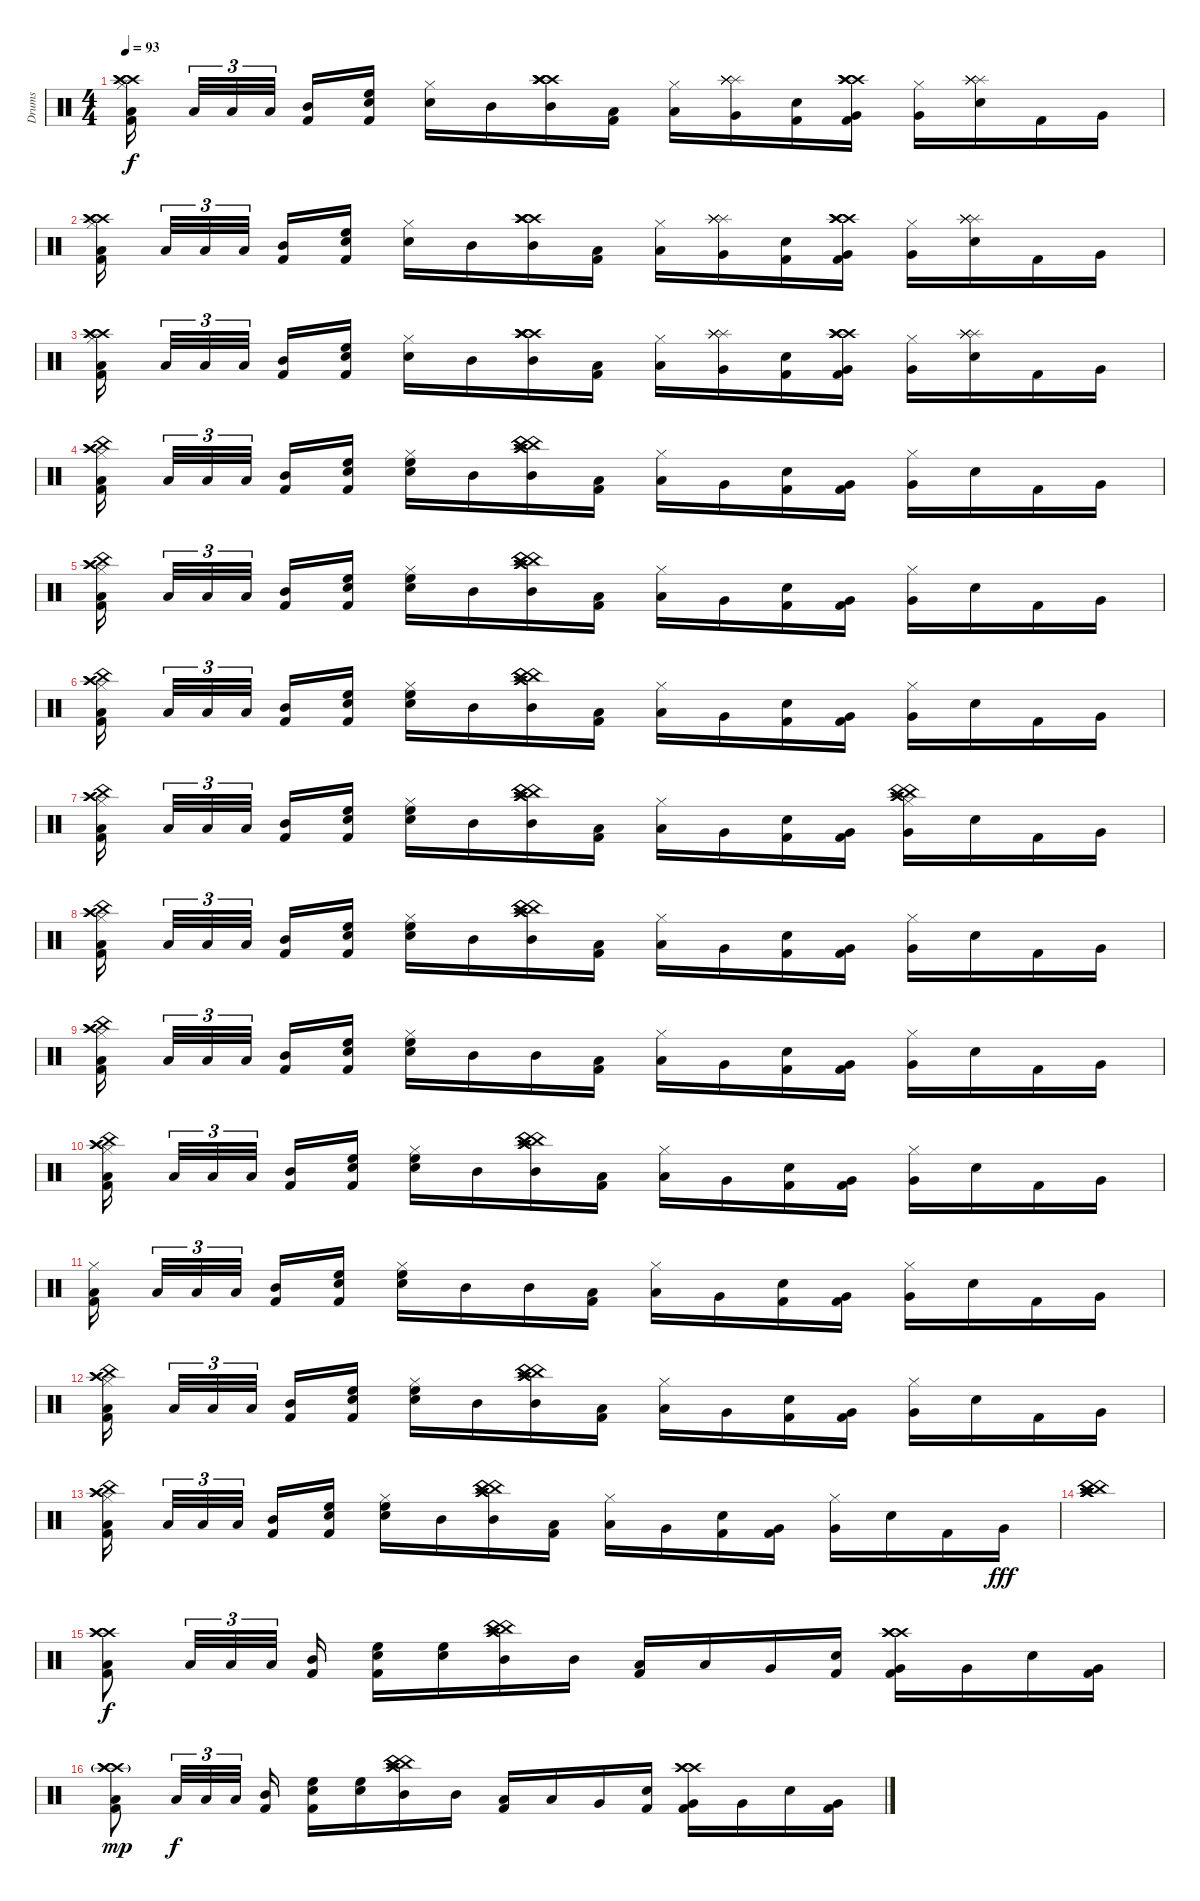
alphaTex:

\track ("Drums" "Drums") {instrument percussion}
\staff {score}
\articulation defaults
\ts (4 4)
\tempo 93
\clef neutral
\ks c
("Hi-Hat (closed)" "Crash high (hit)" "Low Floor Tom (hit)" "Crash high (hit)" "Crash high (hit)" "Kick (hit) 2").16{dy f} "Low Floor Tom (hit)".32{tu (3 2)} "Low Floor Tom (hit)".32{tu (3 2)} "Low Floor Tom (hit)".32{tu (3 2)} ("Mid Tom (hit)" "Kick (hit) 2").16 ("High Floor Tom (hit)" "Snare (hit) 2" "Kick (hit) 2").16 ("Hi-Hat (closed)" "Snare (hit) 2").16 "Mid Tom (hit)".16 ("Crash high (hit)" "Mid Tom (hit)" "Crash high (hit)" "Crash high (hit)" "Crash high (hit)" "Crash high (hit)").16 ("Low Tom (hit)" "Kick (hit) 2").16 ("Hi-Hat (closed)" "Low Floor Tom (hit)").16 ("Splash (hit)" "Splash (hit)" "Splash (hit)" "Splash (hit)" "Very Low Tom (hit)" "Splash (hit)").16 ("Snare (hit) 2" "Kick (hit) 2").16 ("Crash high (hit)" "Crash high (hit)" "Crash high (hit)" "Very Low Tom (hit)" "Crash high (hit)" "Kick (hit) 2").16 ("Hi-Hat (closed)" "Very Low Tom (hit)").16 ("Splash (hit)" "Splash (hit)" "Splash (hit)" "Splash (hit)" "Snare (hit) 2" "Splash (hit)").16 "Kick (hit) 2".16 "Very Low Tom (hit)".16 |
("Hi-Hat (closed)" "Crash high (hit)" "Low Floor Tom (hit)" "Crash high (hit)" "Crash high (hit)" "Kick (hit) 2").16 "Low Floor Tom (hit)".32{tu (3 2)} "Low Floor Tom (hit)".32{tu (3 2)} "Low Floor Tom (hit)".32{tu (3 2)} ("Mid Tom (hit)" "Kick (hit) 2").16 ("High Floor Tom (hit)" "Snare (hit) 2" "Kick (hit) 2").16 ("Hi-Hat (closed)" "Snare (hit) 2").16 "Mid Tom (hit)".16 ("Crash high (hit)" "Mid Tom (hit)" "Crash high (hit)" "Crash high (hit)" "Crash high (hit)" "Crash high (hit)").16 ("Low Tom (hit)" "Kick (hit) 2").16 ("Hi-Hat (closed)" "Low Floor Tom (hit)").16 ("Splash (hit)" "Splash (hit)" "Splash (hit)" "Splash (hit)" "Very Low Tom (hit)" "Splash (hit)").16 ("Snare (hit) 2" "Kick (hit) 2").16 ("Crash high (hit)" "Crash high (hit)" "Crash high (hit)" "Very Low Tom (hit)" "Crash high (hit)" "Kick (hit) 2").16 ("Hi-Hat (closed)" "Very Low Tom (hit)").16 ("Splash (hit)" "Splash (hit)" "Splash (hit)" "Splash (hit)" "Snare (hit) 2" "Splash (hit)").16 "Kick (hit) 2".16 "Very Low Tom (hit)".16 |
("Hi-Hat (closed)" "Crash high (hit)" "Low Floor Tom (hit)" "Crash high (hit)" "Crash high (hit)" "Kick (hit) 2").16 "Low Floor Tom (hit)".32{tu (3 2)} "Low Floor Tom (hit)".32{tu (3 2)} "Low Floor Tom (hit)".32{tu (3 2)} ("Mid Tom (hit)" "Kick (hit) 2").16 ("High Floor Tom (hit)" "Snare (hit) 2" "Kick (hit) 2").16 ("Hi-Hat (closed)" "Snare (hit) 2").16 "Mid Tom (hit)".16 ("Crash high (hit)" "Mid Tom (hit)" "Crash high (hit)" "Crash high (hit)" "Crash high (hit)" "Crash high (hit)").16 ("Low Tom (hit)" "Kick (hit) 2").16 ("Hi-Hat (closed)" "Low Floor Tom (hit)").16 ("Splash (hit)" "Splash (hit)" "Splash (hit)" "Splash (hit)" "Very Low Tom (hit)" "Splash (hit)").16 ("Snare (hit) 2" "Kick (hit) 2").16 ("Crash high (hit)" "Crash high (hit)" "Crash high (hit)" "Very Low Tom (hit)" "Crash high (hit)" "Kick (hit) 2").16 ("Hi-Hat (closed)" "Very Low Tom (hit)").16 ("Splash (hit)" "Splash (hit)" "Splash (hit)" "Splash (hit)" "Snare (hit) 2" "Splash (hit)").16 "Kick (hit) 2".16 "Very Low Tom (hit)".16 |
("Hi-Hat (closed)" "China (hit)" "Low Floor Tom (hit)" "Crash high (hit)" "Crash high (hit)" "Kick (hit) 2").16 "Low Floor Tom (hit)".32{tu (3 2)} "Low Floor Tom (hit)".32{tu (3 2)} "Low Floor Tom (hit)".32{tu (3 2)} ("Mid Tom (hit)" "Kick (hit) 2").16 ("High Floor Tom (hit)" "Snare (hit) 2" "Kick (hit) 2").16 ("High Floor Tom (hit)" "Hi-Hat (closed)" "Snare (hit) 2").16 "Mid Tom (hit)".16 ("China (hit)" "Mid Tom (hit)" "China (hit)" "China (hit)" "Crash high (hit)" "Crash high (hit)").16 ("Low Tom (hit)" "Kick (hit) 2").16 ("Hi-Hat (closed)" "Low Floor Tom (hit)").16 "Very Low Tom (hit)".16 ("Snare (hit) 2" "Kick (hit) 2").16 ("Very Low Tom (hit)" "Kick (hit) 2").16 ("Hi-Hat (closed)" "Very Low Tom (hit)").16 "Snare (hit) 2".16 "Kick (hit) 2".16 "Very Low Tom (hit)".16 |
("Hi-Hat (closed)" "China (hit)" "Low Floor Tom (hit)" "Crash high (hit)" "Crash high (hit)" "Kick (hit) 2").16 "Low Floor Tom (hit)".32{tu (3 2)} "Low Floor Tom (hit)".32{tu (3 2)} "Low Floor Tom (hit)".32{tu (3 2)} ("Mid Tom (hit)" "Kick (hit) 2").16 ("High Floor Tom (hit)" "Snare (hit) 2" "Kick (hit) 2").16 ("High Floor Tom (hit)" "Hi-Hat (closed)" "Snare (hit) 2").16 "Mid Tom (hit)".16 ("China (hit)" "Mid Tom (hit)" "China (hit)" "China (hit)" "Crash high (hit)" "Crash high (hit)").16 ("Low Tom (hit)" "Kick (hit) 2").16 ("Hi-Hat (closed)" "Low Floor Tom (hit)").16 "Very Low Tom (hit)".16 ("Snare (hit) 2" "Kick (hit) 2").16 ("Very Low Tom (hit)" "Kick (hit) 2").16 ("Hi-Hat (closed)" "Very Low Tom (hit)").16 "Snare (hit) 2".16 "Kick (hit) 2".16 "Very Low Tom (hit)".16 |
("Hi-Hat (closed)" "China (hit)" "Low Floor Tom (hit)" "Crash high (hit)" "Crash high (hit)" "Kick (hit) 2").16 "Low Floor Tom (hit)".32{tu (3 2)} "Low Floor Tom (hit)".32{tu (3 2)} "Low Floor Tom (hit)".32{tu (3 2)} ("Mid Tom (hit)" "Kick (hit) 2").16 ("High Floor Tom (hit)" "Snare (hit) 2" "Kick (hit) 2").16 ("High Floor Tom (hit)" "Hi-Hat (closed)" "Snare (hit) 2").16 "Mid Tom (hit)".16 ("China (hit)" "Mid Tom (hit)" "China (hit)" "China (hit)" "Crash high (hit)" "Crash high (hit)").16 ("Low Tom (hit)" "Kick (hit) 2").16 ("Hi-Hat (closed)" "Low Floor Tom (hit)").16 "Very Low Tom (hit)".16 ("Snare (hit) 2" "Kick (hit) 2").16 ("Very Low Tom (hit)" "Kick (hit) 2").16 ("Hi-Hat (closed)" "Very Low Tom (hit)").16 "Snare (hit) 2".16 "Kick (hit) 2".16 "Very Low Tom (hit)".16 |
("Hi-Hat (closed)" "China (hit)" "Low Floor Tom (hit)" "Crash high (hit)" "Crash high (hit)" "Kick (hit) 2").16 "Low Floor Tom (hit)".32{tu (3 2)} "Low Floor Tom (hit)".32{tu (3 2)} "Low Floor Tom (hit)".32{tu (3 2)} ("Mid Tom (hit)" "Kick (hit) 2").16 ("High Floor Tom (hit)" "Snare (hit) 2" "Kick (hit) 2").16 ("High Floor Tom (hit)" "Hi-Hat (closed)" "Snare (hit) 2").16 "Mid Tom (hit)".16 ("China (hit)" "Mid Tom (hit)" "China (hit)" "China (hit)" "Crash high (hit)" "Crash high (hit)").16 ("Low Tom (hit)" "Kick (hit) 2").16 ("Hi-Hat (closed)" "Low Floor Tom (hit)").16 "Very Low Tom (hit)".16 ("Snare (hit) 2" "Kick (hit) 2").16 ("Very Low Tom (hit)" "Kick (hit) 2").16 ("China (hit)" "Hi-Hat (closed)" "China (hit)" "Very Low Tom (hit)" "Crash high (hit)" "Crash high (hit)").16 "Snare (hit) 2".16 "Kick (hit) 2".16 "Very Low Tom (hit)".16 |
("Hi-Hat (closed)" "China (hit)" "Low Floor Tom (hit)" "Crash high (hit)" "Crash high (hit)" "Kick (hit) 2").16 "Low Floor Tom (hit)".32{tu (3 2)} "Low Floor Tom (hit)".32{tu (3 2)} "Low Floor Tom (hit)".32{tu (3 2)} ("Mid Tom (hit)" "Kick (hit) 2").16 ("High Floor Tom (hit)" "Snare (hit) 2" "Kick (hit) 2").16 ("High Floor Tom (hit)" "Hi-Hat (closed)" "Snare (hit) 2").16 "Mid Tom (hit)".16 ("China (hit)" "Mid Tom (hit)" "China (hit)" "China (hit)" "Crash high (hit)" "Crash high (hit)").16 ("Low Tom (hit)" "Kick (hit) 2").16 ("Hi-Hat (closed)" "Low Floor Tom (hit)").16 "Very Low Tom (hit)".16 ("Snare (hit) 2" "Kick (hit) 2").16 ("Very Low Tom (hit)" "Kick (hit) 2").16 ("Hi-Hat (closed)" "Very Low Tom (hit)").16 "Snare (hit) 2".16 "Kick (hit) 2".16 "Very Low Tom (hit)".16 |
("Hi-Hat (closed)" "China (hit)" "Low Floor Tom (hit)" "Crash high (hit)" "Crash high (hit)" "Kick (hit) 2").16 "Low Floor Tom (hit)".32{tu (3 2)} "Low Floor Tom (hit)".32{tu (3 2)} "Low Floor Tom (hit)".32{tu (3 2)} ("Mid Tom (hit)" "Kick (hit) 2").16 ("High Floor Tom (hit)" "Snare (hit) 2" "Kick (hit) 2").16 ("High Floor Tom (hit)" "Hi-Hat (closed)" "Snare (hit) 2").16 "Mid Tom (hit)".16 "Mid Tom (hit)".16 ("Low Tom (hit)" "Kick (hit) 2").16 ("Hi-Hat (closed)" "Low Floor Tom (hit)").16 "Very Low Tom (hit)".16 ("Snare (hit) 2" "Kick (hit) 2").16 ("Very Low Tom (hit)" "Kick (hit) 2").16 ("Hi-Hat (closed)" "Very Low Tom (hit)").16 "Snare (hit) 2".16 "Kick (hit) 2".16 "Very Low Tom (hit)".16 |
("Hi-Hat (closed)" "China (hit)" "Low Floor Tom (hit)" "Crash high (hit)" "Crash high (hit)" "Kick (hit) 2").16 "Low Floor Tom (hit)".32{tu (3 2)} "Low Floor Tom (hit)".32{tu (3 2)} "Low Floor Tom (hit)".32{tu (3 2)} ("Mid Tom (hit)" "Kick (hit) 2").16 ("High Floor Tom (hit)" "Snare (hit) 2" "Kick (hit) 2").16 ("High Floor Tom (hit)" "Hi-Hat (closed)" "Snare (hit) 2").16 "Mid Tom (hit)".16 ("China (hit)" "Mid Tom (hit)" "China (hit)" "China (hit)" "Crash high (hit)" "Crash high (hit)").16 ("Low Tom (hit)" "Kick (hit) 2").16 ("Hi-Hat (closed)" "Low Floor Tom (hit)").16 "Very Low Tom (hit)".16 ("Snare (hit) 2" "Kick (hit) 2").16 ("Very Low Tom (hit)" "Kick (hit) 2").16 ("Hi-Hat (closed)" "Very Low Tom (hit)").16 "Snare (hit) 2".16 "Kick (hit) 2".16 "Very Low Tom (hit)".16 |
("Hi-Hat (closed)" "Low Floor Tom (hit)" "Kick (hit) 2").16 "Low Floor Tom (hit)".32{tu (3 2)} "Low Floor Tom (hit)".32{tu (3 2)} "Low Floor Tom (hit)".32{tu (3 2)} ("Mid Tom (hit)" "Kick (hit) 2").16 ("High Floor Tom (hit)" "Snare (hit) 2" "Kick (hit) 2").16 ("High Floor Tom (hit)" "Hi-Hat (closed)" "Snare (hit) 2").16 "Mid Tom (hit)".16 "Mid Tom (hit)".16 ("Low Tom (hit)" "Kick (hit) 2").16 ("Hi-Hat (closed)" "Low Floor Tom (hit)").16 "Very Low Tom (hit)".16 ("Snare (hit) 2" "Kick (hit) 2").16 ("Very Low Tom (hit)" "Kick (hit) 2").16 ("Hi-Hat (closed)" "Very Low Tom (hit)").16 "Snare (hit) 2".16 "Kick (hit) 2".16 "Very Low Tom (hit)".16 |
("Hi-Hat (closed)" "China (hit)" "Low Floor Tom (hit)" "Crash high (hit)" "Crash high (hit)" "Kick (hit) 2").16 "Low Floor Tom (hit)".32{tu (3 2)} "Low Floor Tom (hit)".32{tu (3 2)} "Low Floor Tom (hit)".32{tu (3 2)} ("Mid Tom (hit)" "Kick (hit) 2").16 ("High Floor Tom (hit)" "Snare (hit) 2" "Kick (hit) 2").16 ("High Floor Tom (hit)" "Hi-Hat (closed)" "Snare (hit) 2").16 "Mid Tom (hit)".16 ("China (hit)" "Mid Tom (hit)" "China (hit)" "China (hit)" "Crash high (hit)" "Crash high (hit)").16 ("Low Tom (hit)" "Kick (hit) 2").16 ("Hi-Hat (closed)" "Low Floor Tom (hit)").16 "Very Low Tom (hit)".16 ("Snare (hit) 2" "Kick (hit) 2").16 ("Very Low Tom (hit)" "Kick (hit) 2").16 ("Hi-Hat (closed)" "Very Low Tom (hit)").16 "Snare (hit) 2".16 "Kick (hit) 2".16 "Very Low Tom (hit)".16 |
("Hi-Hat (closed)" "China (hit)" "Low Floor Tom (hit)" "Crash high (hit)" "Crash high (hit)" "Kick (hit) 2").16 "Low Floor Tom (hit)".32{tu (3 2)} "Low Floor Tom (hit)".32{tu (3 2)} "Low Floor Tom (hit)".32{tu (3 2)} ("Mid Tom (hit)" "Kick (hit) 2").16 ("High Floor Tom (hit)" "Snare (hit) 2" "Kick (hit) 2").16 ("High Floor Tom (hit)" "Hi-Hat (closed)" "Snare (hit) 2").16 "Mid Tom (hit)".16 ("China (hit)" "Mid Tom (hit)" "China (hit)" "China (hit)" "Crash high (hit)" "Crash high (hit)").16 ("Low Tom (hit)" "Kick (hit) 2").16 ("Hi-Hat (closed)" "Low Floor Tom (hit)").16 "Very Low Tom (hit)".16 ("Snare (hit) 2" "Kick (hit) 2").16 ("Very Low Tom (hit)" "Kick (hit) 2").16 ("Hi-Hat (closed)" "Very Low Tom (hit)").16 "Snare (hit) 2".16 "Kick (hit) 2".16 "Very Low Tom (hit)".16{dy fff} |
("China (hit)" "China (hit)" "China (hit)" "Crash high (hit)" "Crash high (hit)" "Crash high (hit)").1 |
("Crash high (hit)" "Crash high (hit)" "Crash high (hit)" "Low Floor Tom (hit)" "Kick (hit) 2").8{dy f} "Low Floor Tom (hit)".32{tu (3 2)} "Low Floor Tom (hit)".32{tu (3 2)} "Low Floor Tom (hit)".32{tu (3 2)} ("Mid Tom (hit)" "Kick (hit) 2").16 ("High Floor Tom (hit)" "Snare (hit) 2" "Kick (hit) 2").16 ("High Floor Tom (hit)" "Snare (hit) 2").16 ("China (hit)" "Mid Tom (hit)" "China (hit)" "China (hit)" "Crash high (hit)" "Crash high (hit)").16 "Mid Tom (hit)".16 ("Low Tom (hit)" "Kick (hit) 2").16 "Low Floor Tom (hit)".16 "Very Low Tom (hit)".16 ("Snare (hit) 2" "Kick (hit) 2").16 ("Crash high (hit)" "Crash high (hit)" "Crash high (hit)" "Very Low Tom (hit)" "Kick (hit) 2").16 "Very Low Tom (hit)".16 "Snare (hit) 2".16 ("Very Low Tom (hit)" "Kick (hit) 2").16 |
("Crash high (hit)"{g} "Crash high (hit)"{g} "Crash high (hit)"{g} "Low Floor Tom (hit)" "Kick (hit) 2").8{dy mp} "Low Floor Tom (hit)".32{tu (3 2) dy f} "Low Floor Tom (hit)".32{tu (3 2)} "Low Floor Tom (hit)".32{tu (3 2)} ("Mid Tom (hit)" "Kick (hit) 2").16 ("High Floor Tom (hit)" "Snare (hit) 2" "Kick (hit) 2").16 ("High Floor Tom (hit)" "Snare (hit) 2").16 ("China (hit)" "Mid Tom (hit)" "China (hit)" "China (hit)" "Crash high (hit)" "Crash high (hit)").16 "Mid Tom (hit)".16 ("Low Tom (hit)" "Kick (hit) 2").16 "Low Floor Tom (hit)".16 "Very Low Tom (hit)".16 ("Snare (hit) 2" "Kick (hit) 2").16 ("Crash high (hit)" "Crash high (hit)" "Crash high (hit)" "Very Low Tom (hit)" "Kick (hit) 2").16 "Very Low Tom (hit)".16 "Snare (hit) 2".16 ("Very Low Tom (hit)" "Kick (hit) 2").16
